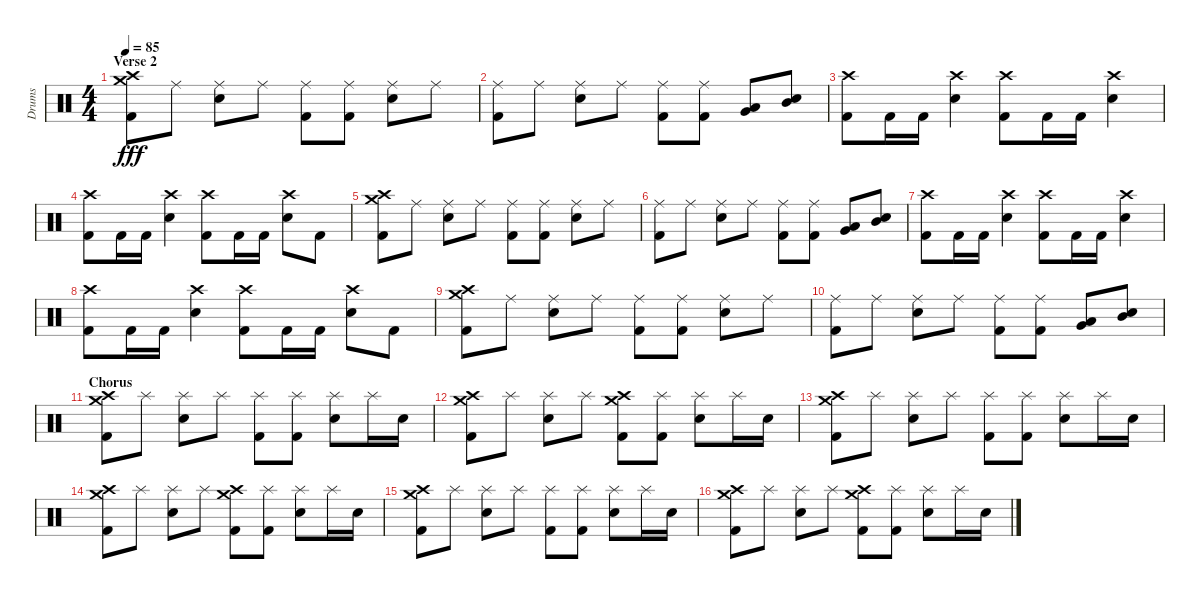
\track ("Drums" "Drums") {instrument percussion}
\staff {score}
\articulation defaults
\ts (4 4)
\section ("" "Verse 2")
\tempo 85
\clef neutral
\ks c
("Crash high (hit)" "Crash medium (hit)" "Kick (hit) 2").8{dy fff} "Ride (middle)".8 ("Ride (middle)" "Electric Snare (hit)").8 "Ride (middle)".8 ("Ride (middle)" "Kick (hit) 2").8 ("Ride (middle)" "Kick (hit) 2").8 ("Ride (middle)" "Electric Snare (hit)").8 "Ride (middle)".8 |
("Ride (middle)" "Kick (hit) 2").8 "Ride (middle)".8 ("Ride (middle)" "Electric Snare (hit)").8 "Ride (middle)".8 ("Ride (middle)" "Kick (hit) 2").8 ("Ride (middle)" "Kick (hit) 2").8 ("Low Tom (hit)" "Very Low Tom (hit)").8 ("Mid Tom (hit)" "Electric Snare (hit)").8 |
("Crash high (hit)" "Kick (hit) 2").8 "Kick (hit) 2".16 "Kick (hit) 2".16 ("Crash high (hit)" "Electric Snare (hit)").4 ("Crash high (hit)" "Kick (hit) 2").8 "Kick (hit) 2".16 "Kick (hit) 2".16 ("Crash high (hit)" "Electric Snare (hit)").4 |
("Crash high (hit)" "Kick (hit) 2").8 "Kick (hit) 2".16 "Kick (hit) 2".16 ("Crash high (hit)" "Electric Snare (hit)").4 ("Crash high (hit)" "Kick (hit) 2").8 "Kick (hit) 2".16 "Kick (hit) 2".16 ("Crash high (hit)" "Electric Snare (hit)").8 "Kick (hit) 2".8 |
("Crash high (hit)" "Crash medium (hit)" "Kick (hit) 2").8 "Ride (middle)".8 ("Ride (middle)" "Electric Snare (hit)").8 "Ride (middle)".8 ("Ride (middle)" "Kick (hit) 2").8 ("Ride (middle)" "Kick (hit) 2").8 ("Ride (middle)" "Electric Snare (hit)").8 "Ride (middle)".8 |
("Ride (middle)" "Kick (hit) 2").8 "Ride (middle)".8 ("Ride (middle)" "Electric Snare (hit)").8 "Ride (middle)".8 ("Ride (middle)" "Kick (hit) 2").8 ("Ride (middle)" "Kick (hit) 2").8 ("Low Tom (hit)" "Very Low Tom (hit)").8 ("Mid Tom (hit)" "Electric Snare (hit)").8 |
("Crash high (hit)" "Kick (hit) 2").8 "Kick (hit) 2".16 "Kick (hit) 2".16 ("Crash high (hit)" "Electric Snare (hit)").4 ("Crash high (hit)" "Kick (hit) 2").8 "Kick (hit) 2".16 "Kick (hit) 2".16 ("Crash high (hit)" "Electric Snare (hit)").4 |
("Crash high (hit)" "Kick (hit) 2").8 "Kick (hit) 2".16 "Kick (hit) 2".16 ("Crash high (hit)" "Electric Snare (hit)").4 ("Crash high (hit)" "Kick (hit) 2").8 "Kick (hit) 2".16 "Kick (hit) 2".16 ("Crash high (hit)" "Electric Snare (hit)").8 "Kick (hit) 2".8 |
("Crash high (hit)" "Crash medium (hit)" "Kick (hit) 2").8 "Ride (middle)".8 ("Ride (middle)" "Electric Snare (hit)").8 "Ride (middle)".8 ("Ride (middle)" "Kick (hit) 2").8 ("Ride (middle)" "Kick (hit) 2").8 ("Ride (middle)" "Electric Snare (hit)").8 "Ride (middle)".8 |
("Ride (middle)" "Kick (hit) 2").8 "Ride (middle)".8 ("Ride (middle)" "Electric Snare (hit)").8 "Ride (middle)".8 ("Ride (middle)" "Kick (hit) 2").8 ("Ride (middle)" "Kick (hit) 2").8 ("Low Tom (hit)" "Very Low Tom (hit)").8 ("Mid Tom (hit)" "Electric Snare (hit)").8 |
\section ("" "Chorus")
("Crash high (hit)" "Crash medium (hit)" "Kick (hit) 2").8 "Splash (hit)".8 ("Splash (hit)" "Electric Snare (hit)").8 "Splash (hit)".8 ("Splash (hit)" "Kick (hit) 2").8 ("Splash (hit)" "Kick (hit) 2").8 ("Splash (hit)" "Electric Snare (hit)").8 "Splash (hit)".16 "Electric Snare (hit)".16 |
("Crash high (hit)" "Crash medium (hit)" "Kick (hit) 2").8 "Splash (hit)".8 ("Splash (hit)" "Electric Snare (hit)").8 "Splash (hit)".8 ("Crash high (hit)" "Crash medium (hit)" "Kick (hit) 2").8 ("Splash (hit)" "Kick (hit) 2").8 ("Splash (hit)" "Electric Snare (hit)").8 "Splash (hit)".16 "Electric Snare (hit)".16 |
("Crash high (hit)" "Crash medium (hit)" "Kick (hit) 2").8 "Splash (hit)".8 ("Splash (hit)" "Electric Snare (hit)").8 "Splash (hit)".8 ("Splash (hit)" "Kick (hit) 2").8 ("Splash (hit)" "Kick (hit) 2").8 ("Splash (hit)" "Electric Snare (hit)").8 "Splash (hit)".16 "Electric Snare (hit)".16 |
("Crash high (hit)" "Crash medium (hit)" "Kick (hit) 2").8 "Splash (hit)".8 ("Splash (hit)" "Electric Snare (hit)").8 "Splash (hit)".8 ("Crash high (hit)" "Crash medium (hit)" "Kick (hit) 2").8 ("Splash (hit)" "Kick (hit) 2").8 ("Splash (hit)" "Electric Snare (hit)").8 "Splash (hit)".16 "Electric Snare (hit)".16 |
("Crash high (hit)" "Crash medium (hit)" "Kick (hit) 2").8 "Splash (hit)".8 ("Splash (hit)" "Electric Snare (hit)").8 "Splash (hit)".8 ("Splash (hit)" "Kick (hit) 2").8 ("Splash (hit)" "Kick (hit) 2").8 ("Splash (hit)" "Electric Snare (hit)").8 "Splash (hit)".16 "Electric Snare (hit)".16 |
("Crash high (hit)" "Crash medium (hit)" "Kick (hit) 2").8 "Splash (hit)".8 ("Splash (hit)" "Electric Snare (hit)").8 "Splash (hit)".8 ("Crash high (hit)" "Crash medium (hit)" "Kick (hit) 2").8 ("Splash (hit)" "Kick (hit) 2").8 ("Splash (hit)" "Electric Snare (hit)").8 "Splash (hit)".16 "Electric Snare (hit)".16
